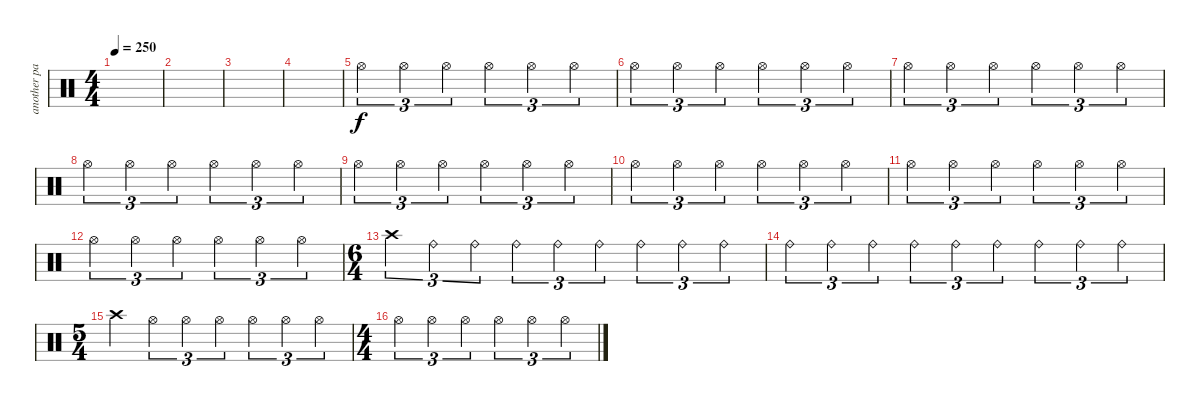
\track ("another part of metti" "another pa") {instrument percussion}
\staff {score}
\articulation defaults
\ts (4 4)
\tempo 250
\clef neutral
\ks c
|
|
|
|
"Hi-Hat (open)".4{tu (3 2)} "Hi-Hat (open)".4{tu (3 2)} "Hi-Hat (open)".4{tu (3 2)} "Hi-Hat (open)".4{tu (3 2)} "Hi-Hat (open)".4{tu (3 2)} "Hi-Hat (open)".4{tu (3 2)} |
"Hi-Hat (open)".4{tu (3 2)} "Hi-Hat (open)".4{tu (3 2)} "Hi-Hat (open)".4{tu (3 2)} "Hi-Hat (open)".4{tu (3 2)} "Hi-Hat (open)".4{tu (3 2)} "Hi-Hat (open)".4{tu (3 2)} |
"Hi-Hat (open)".4{tu (3 2)} "Hi-Hat (open)".4{tu (3 2)} "Hi-Hat (open)".4{tu (3 2)} "Hi-Hat (open)".4{tu (3 2)} "Hi-Hat (open)".4{tu (3 2)} "Hi-Hat (open)".4{tu (3 2)} |
"Hi-Hat (open)".4{tu (3 2)} "Hi-Hat (open)".4{tu (3 2)} "Hi-Hat (open)".4{tu (3 2)} "Hi-Hat (open)".4{tu (3 2)} "Hi-Hat (open)".4{tu (3 2)} "Hi-Hat (open)".4{tu (3 2)} |
"Hi-Hat (open)".4{tu (3 2)} "Hi-Hat (open)".4{tu (3 2)} "Hi-Hat (open)".4{tu (3 2)} "Hi-Hat (open)".4{tu (3 2)} "Hi-Hat (open)".4{tu (3 2)} "Hi-Hat (open)".4{tu (3 2)} |
"Hi-Hat (open)".4{tu (3 2)} "Hi-Hat (open)".4{tu (3 2)} "Hi-Hat (open)".4{tu (3 2)} "Hi-Hat (open)".4{tu (3 2)} "Hi-Hat (open)".4{tu (3 2)} "Hi-Hat (open)".4{tu (3 2)} |
"Hi-Hat (open)".4{tu (3 2)} "Hi-Hat (open)".4{tu (3 2)} "Hi-Hat (open)".4{tu (3 2)} "Hi-Hat (open)".4{tu (3 2)} "Hi-Hat (open)".4{tu (3 2)} "Hi-Hat (open)".4{tu (3 2)} |
"Hi-Hat (open)".4{tu (3 2)} "Hi-Hat (open)".4{tu (3 2)} "Hi-Hat (open)".4{tu (3 2)} "Hi-Hat (open)".4{tu (3 2)} "Hi-Hat (open)".4{tu (3 2)} "Hi-Hat (open)".4{tu (3 2)} |
\ts (6 4)
"Crash high (hit)".4{tu (3 2)} "Ride (bell)".4{tu (3 2)} "Ride (bell)".4{tu (3 2)} "Ride (bell)".4{tu (3 2)} "Ride (bell)".4{tu (3 2)} "Ride (bell)".4{tu (3 2)} "Ride (bell)".4{tu (3 2)} "Ride (bell)".4{tu (3 2)} "Ride (bell)".4{tu (3 2)} |
"Ride (bell)".4{tu (3 2)} "Ride (bell)".4{tu (3 2)} "Ride (bell)".4{tu (3 2)} "Ride (bell)".4{tu (3 2)} "Ride (bell)".4{tu (3 2)} "Ride (bell)".4{tu (3 2)} "Ride (bell)".4{tu (3 2)} "Ride (bell)".4{tu (3 2)} "Ride (bell)".4{tu (3 2)} |
\ts (5 4)
"Crash high (hit)".4 "Hi-Hat (open)".4{tu (3 2)} "Hi-Hat (open)".4{tu (3 2)} "Hi-Hat (open)".4{tu (3 2)} "Hi-Hat (open)".4{tu (3 2)} "Hi-Hat (open)".4{tu (3 2)} "Hi-Hat (open)".4{tu (3 2)} |
\ts (4 4)
"Hi-Hat (open)".4{tu (3 2)} "Hi-Hat (open)".4{tu (3 2)} "Hi-Hat (open)".4{tu (3 2)} "Hi-Hat (open)".4{tu (3 2)} "Hi-Hat (open)".4{tu (3 2)} "Hi-Hat (open)".4{tu (3 2)}
